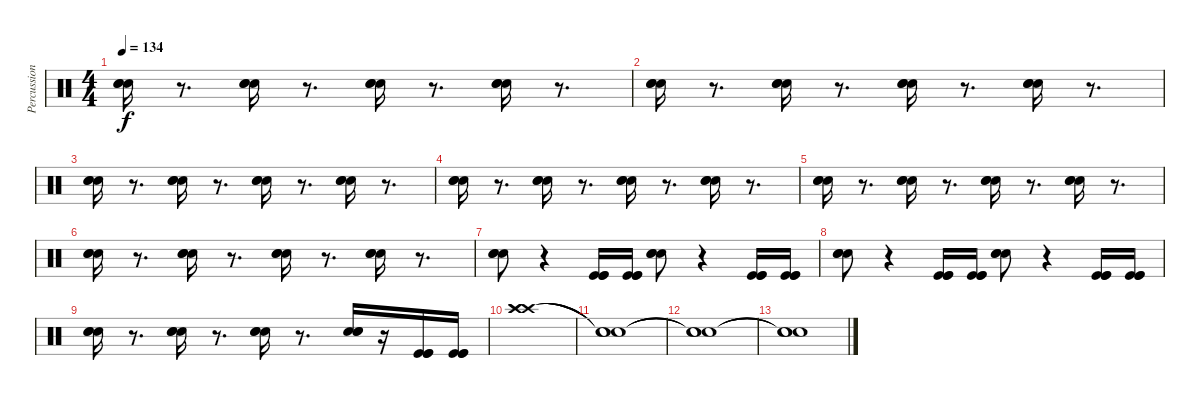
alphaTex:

\track ("Percussion (Rico)" "Percussion") {instrument percussion}
\staff {score}
\articulation defaults
\ts (4 4)
\tempo 134
\clef neutral
\ks c
("Electric Snare (hit)" "Electric Snare (hit)" "Electric Snare (hit)").16{dy f} r.8{d} ("Electric Snare (hit)" "Electric Snare (hit)" "Electric Snare (hit)").16 r.8{d} ("Electric Snare (hit)" "Electric Snare (hit)" "Electric Snare (hit)").16 r.8{d} ("Electric Snare (hit)" "Electric Snare (hit)" "Electric Snare (hit)").16 r.8{d} |
("Electric Snare (hit)" "Electric Snare (hit)" "Electric Snare (hit)").16 r.8{d} ("Electric Snare (hit)" "Electric Snare (hit)" "Electric Snare (hit)").16 r.8{d} ("Electric Snare (hit)" "Electric Snare (hit)" "Electric Snare (hit)").16 r.8{d} ("Electric Snare (hit)" "Electric Snare (hit)" "Electric Snare (hit)").16 r.8{d} |
("Electric Snare (hit)" "Electric Snare (hit)" "Electric Snare (hit)").16 r.8{d} ("Electric Snare (hit)" "Electric Snare (hit)" "Electric Snare (hit)").16 r.8{d} ("Electric Snare (hit)" "Electric Snare (hit)" "Electric Snare (hit)").16 r.8{d} ("Electric Snare (hit)" "Electric Snare (hit)" "Electric Snare (hit)").16 r.8{d} |
("Electric Snare (hit)" "Electric Snare (hit)" "Electric Snare (hit)").16 r.8{d} ("Electric Snare (hit)" "Electric Snare (hit)" "Electric Snare (hit)").16 r.8{d} ("Electric Snare (hit)" "Electric Snare (hit)" "Electric Snare (hit)").16 r.8{d} ("Electric Snare (hit)" "Electric Snare (hit)" "Electric Snare (hit)").16 r.8{d} |
("Electric Snare (hit)" "Electric Snare (hit)" "Electric Snare (hit)").16 r.8{d} ("Electric Snare (hit)" "Electric Snare (hit)" "Electric Snare (hit)").16 r.8{d} ("Electric Snare (hit)" "Electric Snare (hit)" "Electric Snare (hit)").16 r.8{d} ("Electric Snare (hit)" "Electric Snare (hit)" "Electric Snare (hit)").16 r.8{d} |
("Electric Snare (hit)" "Electric Snare (hit)" "Electric Snare (hit)").16 r.8{d} ("Electric Snare (hit)" "Electric Snare (hit)" "Electric Snare (hit)").16 r.8{d} ("Electric Snare (hit)" "Electric Snare (hit)" "Electric Snare (hit)").16 r.8{d} ("Electric Snare (hit)" "Electric Snare (hit)" "Electric Snare (hit)").16 r.8{d} |
("Electric Snare (hit)" "Electric Snare (hit)" "Electric Snare (hit)").8 r.4 ("Kick (hit)" "Kick (hit)" "Kick (hit)").16 ("Kick (hit)" "Kick (hit)" "Kick (hit)").16 ("Electric Snare (hit)" "Electric Snare (hit)" "Electric Snare (hit)").8 r.4 ("Kick (hit)" "Kick (hit)" "Kick (hit)").16 ("Kick (hit)" "Kick (hit)" "Kick (hit)").16 |
("Electric Snare (hit)" "Electric Snare (hit)" "Electric Snare (hit)").8 r.4 ("Kick (hit)" "Kick (hit)" "Kick (hit)").16 ("Kick (hit)" "Kick (hit)" "Kick (hit)").16 ("Electric Snare (hit)" "Electric Snare (hit)" "Electric Snare (hit)").8 r.4 ("Kick (hit)" "Kick (hit)" "Kick (hit)").16 ("Kick (hit)" "Kick (hit)" "Kick (hit)").16 |
("Electric Snare (hit)" "Electric Snare (hit)" "Electric Snare (hit)").16 r.8{d} ("Electric Snare (hit)" "Electric Snare (hit)" "Electric Snare (hit)").16 r.8{d} ("Electric Snare (hit)" "Electric Snare (hit)" "Electric Snare (hit)").16 r.8{d} ("Electric Snare (hit)" "Electric Snare (hit)" "Electric Snare (hit)").16 r.16 ("Kick (hit)" "Kick (hit)" "Kick (hit)").16 ("Kick (hit)" "Kick (hit)" "Kick (hit)").16 |
("Crash high (hit)" "Crash high (hit)" "Crash high (hit)").1 |
("Snare (hit)"{t} "Snare (hit)"{t} "Snare (hit)"{t}).1 |
("Snare (hit)"{t} "Snare (hit)"{t} "Snare (hit)"{t}).1{volume 0} |
("Snare (hit)"{t} "Snare (hit)"{t} "Snare (hit)"{t}).1
